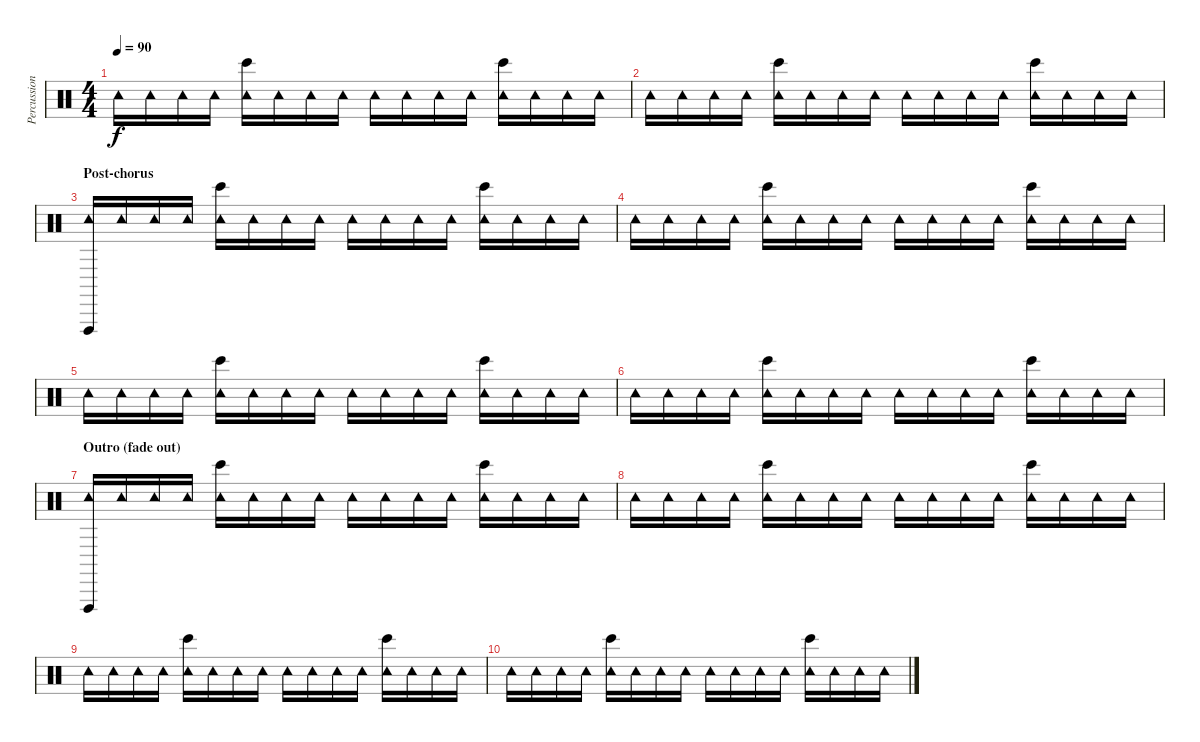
\track ("Percussion" "Percussion") {instrument percussion}
\staff {score}
\articulation defaults
\ts (4 4)
\tempo 90
\clef neutral
\ks c "Tambourine (hit)".16{dy f} "Tambourine (hit)".16 "Tambourine (hit)".16 "Tambourine (hit)".16
("Tambourine (hit)" "Bongo High (hit)").16 "Tambourine (hit)".16 "Tambourine (hit)".16 "Tambourine (hit)".16 "Tambourine (hit)".16 "Tambourine (hit)".16 "Tambourine (hit)".16 "Tambourine (hit)".16 ("Tambourine (hit)" "Bongo High (hit)").16 "Tambourine (hit)".16 "Tambourine (hit)".16 "Tambourine (hit)".16 |
"Tambourine (hit)".16 "Tambourine (hit)".16 "Tambourine (hit)".16 "Tambourine (hit)".16 ("Tambourine (hit)" "Bongo High (hit)").16 "Tambourine (hit)".16 "Tambourine (hit)".16 "Tambourine (hit)".16 "Tambourine (hit)".16 "Tambourine (hit)".16 "Tambourine (hit)".16 "Tambourine (hit)".16 ("Tambourine (hit)" "Bongo High (hit)").16 "Tambourine (hit)".16 "Tambourine (hit)".16 "Tambourine (hit)".16 |
\section ("" "Post-chorus")
("Tambourine (hit)" "Vibraslap (hit)").16 "Tambourine (hit)".16 "Tambourine (hit)".16 "Tambourine (hit)".16 ("Tambourine (hit)" "Bongo High (hit)").16 "Tambourine (hit)".16 "Tambourine (hit)".16 "Tambourine (hit)".16 "Tambourine (hit)".16 "Tambourine (hit)".16 "Tambourine (hit)".16 "Tambourine (hit)".16 ("Tambourine (hit)" "Bongo High (hit)").16 "Tambourine (hit)".16 "Tambourine (hit)".16 "Tambourine (hit)".16 |
"Tambourine (hit)".16 "Tambourine (hit)".16 "Tambourine (hit)".16 "Tambourine (hit)".16 ("Tambourine (hit)" "Bongo High (hit)").16 "Tambourine (hit)".16 "Tambourine (hit)".16 "Tambourine (hit)".16 "Tambourine (hit)".16 "Tambourine (hit)".16 "Tambourine (hit)".16 "Tambourine (hit)".16 ("Tambourine (hit)" "Bongo High (hit)").16 "Tambourine (hit)".16 "Tambourine (hit)".16 "Tambourine (hit)".16 |
"Tambourine (hit)".16 "Tambourine (hit)".16 "Tambourine (hit)".16 "Tambourine (hit)".16 ("Tambourine (hit)" "Bongo High (hit)").16 "Tambourine (hit)".16 "Tambourine (hit)".16 "Tambourine (hit)".16 "Tambourine (hit)".16 "Tambourine (hit)".16 "Tambourine (hit)".16 "Tambourine (hit)".16 ("Tambourine (hit)" "Bongo High (hit)").16 "Tambourine (hit)".16 "Tambourine (hit)".16 "Tambourine (hit)".16 |
"Tambourine (hit)".16 "Tambourine (hit)".16 "Tambourine (hit)".16 "Tambourine (hit)".16 ("Tambourine (hit)" "Bongo High (hit)").16 "Tambourine (hit)".16 "Tambourine (hit)".16 "Tambourine (hit)".16 "Tambourine (hit)".16 "Tambourine (hit)".16 "Tambourine (hit)".16 "Tambourine (hit)".16 ("Tambourine (hit)" "Bongo High (hit)").16 "Tambourine (hit)".16 "Tambourine (hit)".16 "Tambourine (hit)".16 |
\section ("" "Outro (fade out)")
("Tambourine (hit)" "Vibraslap (hit)").16 "Tambourine (hit)".16 "Tambourine (hit)".16 "Tambourine (hit)".16 ("Tambourine (hit)" "Bongo High (hit)").16 "Tambourine (hit)".16 "Tambourine (hit)".16 "Tambourine (hit)".16 "Tambourine (hit)".16 "Tambourine (hit)".16 "Tambourine (hit)".16 "Tambourine (hit)".16 ("Tambourine (hit)" "Bongo High (hit)").16 "Tambourine (hit)".16 "Tambourine (hit)".16 "Tambourine (hit)".16 |
"Tambourine (hit)".16 "Tambourine (hit)".16 "Tambourine (hit)".16 "Tambourine (hit)".16 ("Tambourine (hit)" "Bongo High (hit)").16 "Tambourine (hit)".16 "Tambourine (hit)".16 "Tambourine (hit)".16 "Tambourine (hit)".16 "Tambourine (hit)".16 "Tambourine (hit)".16 "Tambourine (hit)".16 ("Tambourine (hit)" "Bongo High (hit)").16 "Tambourine (hit)".16 "Tambourine (hit)".16 "Tambourine (hit)".16 |
"Tambourine (hit)".16 "Tambourine (hit)".16 "Tambourine (hit)".16 "Tambourine (hit)".16 ("Tambourine (hit)" "Bongo High (hit)").16 "Tambourine (hit)".16 "Tambourine (hit)".16 "Tambourine (hit)".16 "Tambourine (hit)".16 "Tambourine (hit)".16 "Tambourine (hit)".16 "Tambourine (hit)".16 ("Tambourine (hit)" "Bongo High (hit)").16 "Tambourine (hit)".16 "Tambourine (hit)".16 "Tambourine (hit)".16 |
"Tambourine (hit)".16 "Tambourine (hit)".16 "Tambourine (hit)".16 "Tambourine (hit)".16 ("Tambourine (hit)" "Bongo High (hit)").16 "Tambourine (hit)".16 "Tambourine (hit)".16 "Tambourine (hit)".16 "Tambourine (hit)".16 "Tambourine (hit)".16 "Tambourine (hit)".16 "Tambourine (hit)".16 ("Tambourine (hit)" "Bongo High (hit)").16 "Tambourine (hit)".16 "Tambourine (hit)".16 "Tambourine (hit)".16
